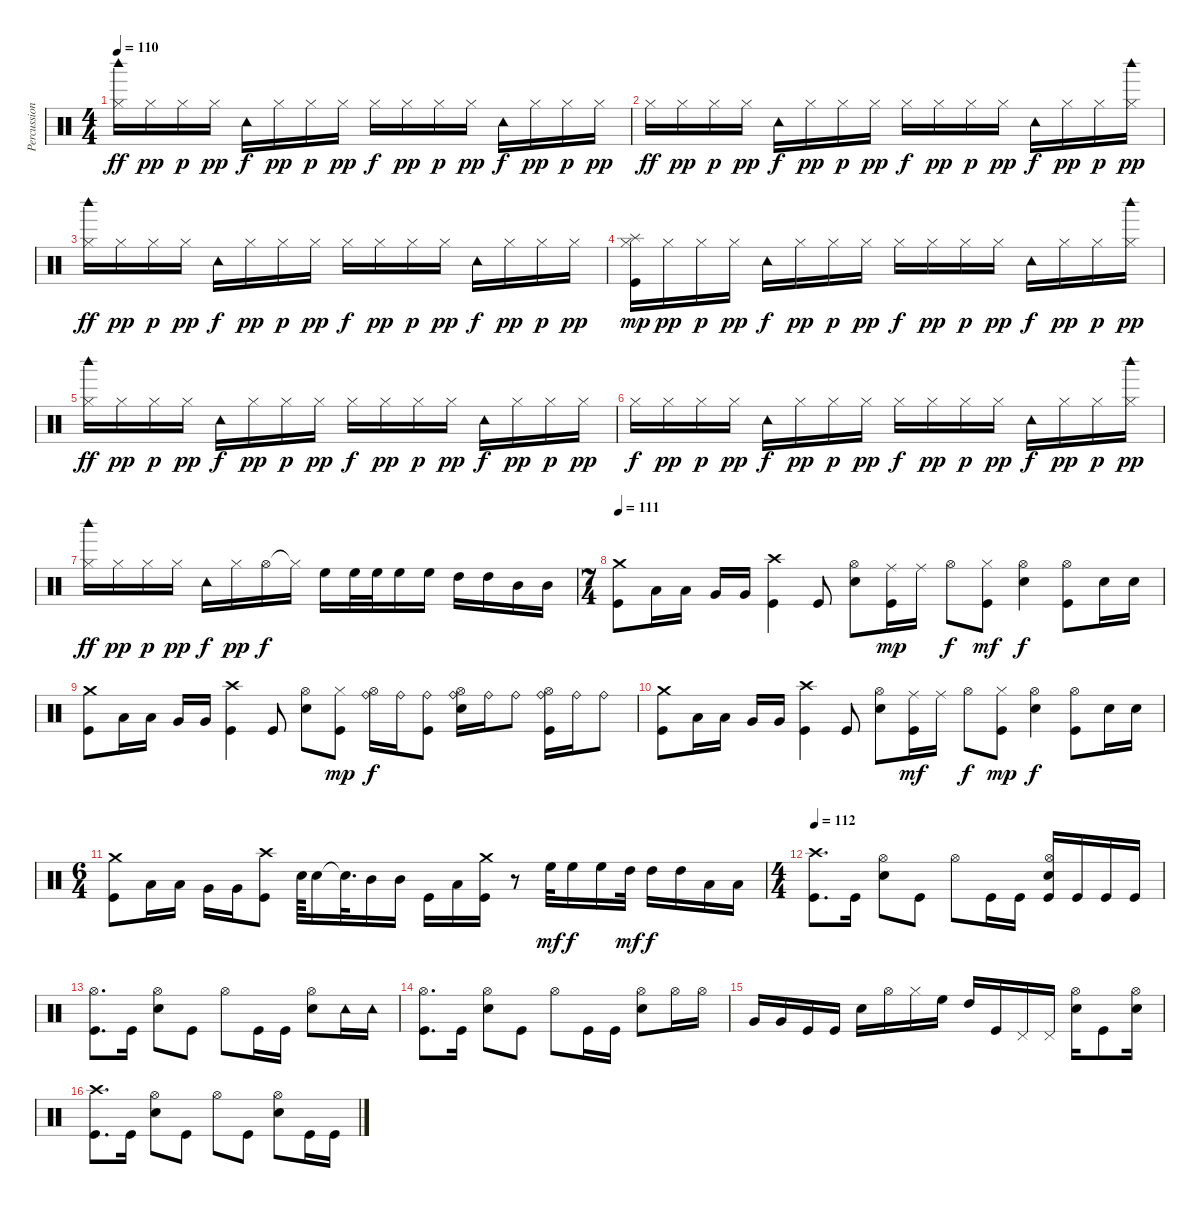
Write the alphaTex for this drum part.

\track ("Percussioni" "Percussion") {instrument percussion}
\staff {score}
\articulation defaults
\ts (4 4)
\tempo 110
\clef neutral
\ks c
("Woodblock high (hit)" "Hi-Hat (closed)").16{dy ff} "Hi-Hat (closed)".16{dy pp} "Hi-Hat (closed)".16{dy p} "Hi-Hat (closed)".16{dy pp} "Tambourine (hit)".16{dy f} "Hi-Hat (closed)".16{dy pp} "Hi-Hat (closed)".16{dy p} "Hi-Hat (closed)".16{dy pp} "Hi-Hat (closed)".16{dy f} "Hi-Hat (closed)".16{dy pp} "Hi-Hat (closed)".16{dy p} "Hi-Hat (closed)".16{dy pp} "Tambourine (hit)".16{dy f} "Hi-Hat (closed)".16{dy pp} "Hi-Hat (closed)".16{dy p} "Hi-Hat (closed)".16{dy pp} |
"Hi-Hat (closed)".16{dy ff} "Hi-Hat (closed)".16{dy pp} "Hi-Hat (closed)".16{dy p} "Hi-Hat (closed)".16{dy pp} "Tambourine (hit)".16{dy f} "Hi-Hat (closed)".16{dy pp} "Hi-Hat (closed)".16{dy p} "Hi-Hat (closed)".16{dy pp} "Hi-Hat (closed)".16{dy f} "Hi-Hat (closed)".16{dy pp} "Hi-Hat (closed)".16{dy p} "Hi-Hat (closed)".16{dy pp} "Tambourine (hit)".16{dy f} "Hi-Hat (closed)".16{dy pp} "Hi-Hat (closed)".16{dy p} ("Woodblock high (hit)" "Hi-Hat (closed)").16{dy pp} |
("Woodblock high (hit)" "Hi-Hat (closed)").16{dy ff} "Hi-Hat (closed)".16{dy pp} "Hi-Hat (closed)".16{dy p} "Hi-Hat (closed)".16{dy pp} "Tambourine (hit)".16{dy f} "Hi-Hat (closed)".16{dy pp} "Hi-Hat (closed)".16{dy p} "Hi-Hat (closed)".16{dy pp} "Hi-Hat (closed)".16{dy f} "Hi-Hat (closed)".16{dy pp} "Hi-Hat (closed)".16{dy p} "Hi-Hat (closed)".16{dy pp} "Tambourine (hit)".16{dy f} "Hi-Hat (closed)".16{dy pp} "Hi-Hat (closed)".16{dy p} "Hi-Hat (closed)".16{dy pp} |
("Splash (hit)" "Hi-Hat (closed)" "Kick (hit)").16{dy mp} "Hi-Hat (closed)".16{dy pp} "Hi-Hat (closed)".16{dy p} "Hi-Hat (closed)".16{dy pp} "Tambourine (hit)".16{dy f} "Hi-Hat (closed)".16{dy pp} "Hi-Hat (closed)".16{dy p} "Hi-Hat (closed)".16{dy pp} "Hi-Hat (closed)".16{dy f} "Hi-Hat (closed)".16{dy pp} "Hi-Hat (closed)".16{dy p} "Hi-Hat (closed)".16{dy pp} "Tambourine (hit)".16{dy f} "Hi-Hat (closed)".16{dy pp} "Hi-Hat (closed)".16{dy p} ("Woodblock high (hit)" "Hi-Hat (closed)").16{dy pp} |
("Woodblock high (hit)" "Hi-Hat (closed)").16{dy ff} "Hi-Hat (closed)".16{dy pp} "Hi-Hat (closed)".16{dy p} "Hi-Hat (closed)".16{dy pp} "Tambourine (hit)".16{dy f} "Hi-Hat (closed)".16{dy pp} "Hi-Hat (closed)".16{dy p} "Hi-Hat (closed)".16{dy pp} "Hi-Hat (closed)".16{dy f} "Hi-Hat (closed)".16{dy pp} "Hi-Hat (closed)".16{dy p} "Hi-Hat (closed)".16{dy pp} "Tambourine (hit)".16{dy f} "Hi-Hat (closed)".16{dy pp} "Hi-Hat (closed)".16{dy p} "Hi-Hat (closed)".16{dy pp} |
"Hi-Hat (closed)".16{dy f} "Hi-Hat (closed)".16{dy pp} "Hi-Hat (closed)".16{dy p} "Hi-Hat (closed)".16{dy pp} "Tambourine (hit)".16{dy f} "Hi-Hat (closed)".16{dy pp} "Hi-Hat (closed)".16{dy p} "Hi-Hat (closed)".16{dy pp} "Hi-Hat (closed)".16{dy f} "Hi-Hat (closed)".16{dy pp} "Hi-Hat (closed)".16{dy p} "Hi-Hat (closed)".16{dy pp} "Tambourine (hit)".16{dy f} "Hi-Hat (closed)".16{dy pp} "Hi-Hat (closed)".16{dy p} ("Woodblock high (hit)" "Hi-Hat (closed)").16{dy pp} |
("Woodblock high (hit)" "Hi-Hat (closed)").16{dy ff} "Hi-Hat (closed)".16{dy pp} "Hi-Hat (closed)".16{dy p} "Hi-Hat (closed)".16{dy pp} "Tambourine (hit)".16{dy f} "Hi-Hat (closed)".16{dy pp} "Hi-Hat (open)".16{dy f} "Hi-Hat (closed)"{t}.16 "High Floor Tom (hit)".16 "High Floor Tom (hit)".32 "High Floor Tom (hit)".32 "High Floor Tom (hit)".16 "High Floor Tom (hit)".16 "High Tom (hit)".16 "High Tom (hit)".16 "Mid Tom (hit)".16 "Mid Tom (hit)".16 |
\ts (7 4)
\tempo 111
("Crash medium (hit)" "Kick (hit)").8 "Low Tom (hit)".16 "Low Tom (hit)".16 "Very Low Tom (hit)".16 "Very Low Tom (hit)".16 ("Crash high (hit)" "Kick (hit)").4 "Kick (hit)".8 ("Hi-Hat (open)" "Snare (hit) 2").8 ("Ride (middle)" "Kick (hit)").16{dy mp} "Ride (middle)".16 "Hi-Hat (open)".8{dy f} ("Hi-Hat (closed)" "Kick (hit)").8{dy mf} ("Hi-Hat (open)" "Snare (hit) 2").4{dy f} ("Hi-Hat (open)" "Kick (hit)").8 "Snare (hit) 2".16 "Snare (hit) 2".16 |
("Crash medium (hit)" "Kick (hit)").8 "Low Tom (hit)".16 "Low Tom (hit)".16 "Very Low Tom (hit)".16 "Very Low Tom (hit)".16 ("Crash high (hit)" "Kick (hit)").4 "Kick (hit)".8 ("Hi-Hat (open)" "Snare (hit) 2").8 ("Hi-Hat (closed)" "Kick (hit)").8{dy mp} ("Hi-Hat (open)" "Ride (bell)").16{dy f} "Ride (bell)".16 ("Ride (bell)" "Kick (hit)").8 ("Hi-Hat (open)" "Ride (bell)" "Snare (hit) 2").16 "Ride (bell)".16 "Ride (bell)".8 ("Hi-Hat (open)" "Ride (bell)" "Kick (hit)").16 "Ride (bell)".16 "Ride (bell)".8 |
("Crash medium (hit)" "Kick (hit)").8 "Low Tom (hit)".16 "Low Tom (hit)".16 "Very Low Tom (hit)".16 "Very Low Tom (hit)".16 ("Crash high (hit)" "Kick (hit)").4 "Kick (hit)".8 ("Hi-Hat (open)" "Snare (hit) 2").8 ("Ride (middle)" "Kick (hit)").16{dy mf} "Ride (middle)".16 "Hi-Hat (open)".8{dy f} ("Hi-Hat (closed)" "Kick (hit)").8{dy mp} ("Hi-Hat (open)" "Snare (hit) 2").4{dy f} ("Hi-Hat (open)" "Kick (hit)").8 "Snare (hit) 2".16 "Snare (hit) 2".16 |
\ts (6 4)
("Crash medium (hit)" "Kick (hit)").8 "Low Tom (hit)".16 "Low Tom (hit)".16 "Very Low Tom (hit)".16 "Very Low Tom (hit)".16 ("Crash high (hit)" "Kick (hit)").8 "Snare (hit) 2".64 "Snare (hit) 2".16 "Snare (hit)"{t}.32{d} "Mid Tom (hit)".16 "Mid Tom (hit)".16 "Kick (hit)".16 "Low Tom (hit)".16 ("Crash medium (hit)" "Kick (hit)").16 r.8 "High Floor Tom (hit)".32{dy mf} "High Floor Tom (hit)".16{dy f} "High Floor Tom (hit)".16 "High Tom (hit)".32{dy mf} "High Tom (hit)".16{dy f} "High Tom (hit)".16 "Low Tom (hit)".16 "Low Tom (hit)".16 |
\ts (4 4)
\tempo 112
("Crash high (hit)" "Kick (hit)").8{d} "Kick (hit)".16 ("Hi-Hat (open)" "Snare (hit) 2").8 "Kick (hit)".8 "Hi-Hat (open)".8 "Kick (hit)".16 "Kick (hit)".16 ("Hi-Hat (open)" "Snare (hit) 2" "Kick (hit)").16 "Kick (hit)".16 "Kick (hit)".16 "Kick (hit)".16 |
("Hi-Hat (open)" "Kick (hit)").8{d} "Kick (hit)".16 ("Hi-Hat (open)" "Snare (hit) 2").8 "Kick (hit)".8 "Hi-Hat (open)".8 "Kick (hit)".16 "Kick (hit)".16 ("Hi-Hat (open)" "Snare (hit) 2").8 "Tambourine (hit)".16 "Tambourine (hit)".16 |
("Hi-Hat (open)" "Kick (hit)").8{d} "Kick (hit)".16 ("Hi-Hat (open)" "Snare (hit) 2").8 "Kick (hit)".8 "Hi-Hat (open)".8 "Kick (hit)".16 "Kick (hit)".16 ("Hi-Hat (open)" "Snare (hit) 2").8 "Hi-Hat (open)".16 "Hi-Hat (open)".16 |
"Very Low Tom (hit)".16 "Very Low Tom (hit)".16 "Kick (hit)".16 "Kick (hit)".16 "Snare (hit) 2".16 "Hi-Hat (open)".16 "Hi-Hat (closed)".16 "High Floor Tom (hit)".16 "High Tom (hit)".16 "Kick (hit)".16 "Pedal Hi-Hat (hit)".16 "Pedal Hi-Hat (hit)".16 ("Hi-Hat (open)" "Snare (hit) 2").16 "Kick (hit)".8 ("Hi-Hat (open)" "Snare (hit) 2").16 |
("Crash high (hit)" "Kick (hit)").8{d} "Kick (hit)".16 ("Hi-Hat (open)" "Snare (hit) 2").8 "Kick (hit)".8 "Hi-Hat (open)".8 "Kick (hit)".8 ("Hi-Hat (open)" "Snare (hit) 2").8 "Kick (hit)".16 "Kick (hit)".16
